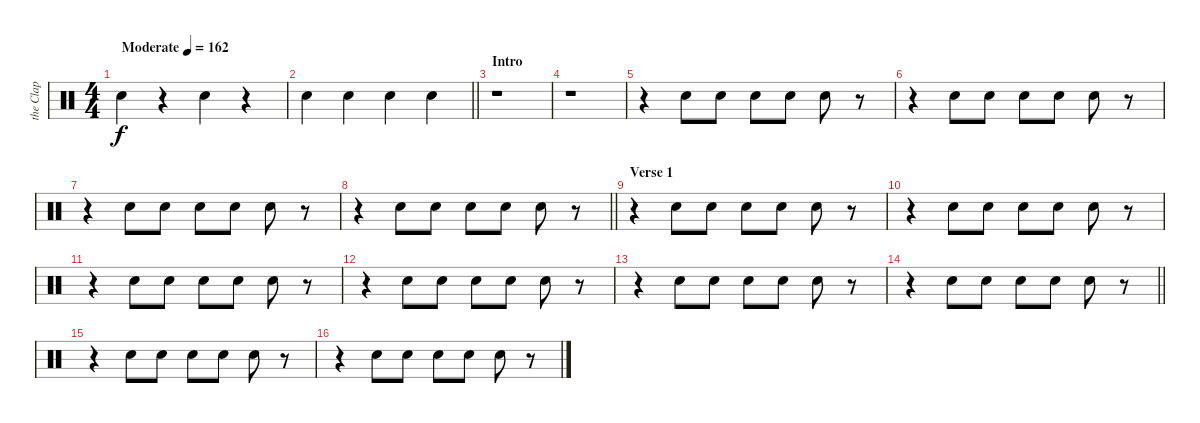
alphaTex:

\track ("the Clap" "the Clap") {instrument percussion}
\staff {score}
\articulation defaults
\ts (4 4)
\tempo (162 "Moderate")
\clef neutral
\ks c "Hand Clap (hit)".4{dy f}
r.4 "Hand Clap (hit)".4 r.4 |
\barLineRight lightlight "Hand Clap (hit)".4 "Hand Clap (hit)".4 "Hand Clap (hit)".4 "Hand Clap (hit)".4
|
\section ("" "Intro")
r.1 |
r.1 |
r.4 "Hand Clap (hit)".8 "Hand Clap (hit)".8 "Hand Clap (hit)".8 "Hand Clap (hit)".8 "Hand Clap (hit)".8 r.8 |
r.4 "Hand Clap (hit)".8 "Hand Clap (hit)".8 "Hand Clap (hit)".8 "Hand Clap (hit)".8 "Hand Clap (hit)".8 r.8 |
r.4 "Hand Clap (hit)".8 "Hand Clap (hit)".8 "Hand Clap (hit)".8 "Hand Clap (hit)".8 "Hand Clap (hit)".8 r.8 |
\barLineRight lightlight
r.4 "Hand Clap (hit)".8 "Hand Clap (hit)".8 "Hand Clap (hit)".8 "Hand Clap (hit)".8 "Hand Clap (hit)".8 r.8 |
\section ("" "Verse 1")
r.4 "Hand Clap (hit)".8 "Hand Clap (hit)".8 "Hand Clap (hit)".8 "Hand Clap (hit)".8 "Hand Clap (hit)".8 r.8 |
r.4 "Hand Clap (hit)".8 "Hand Clap (hit)".8 "Hand Clap (hit)".8 "Hand Clap (hit)".8 "Hand Clap (hit)".8 r.8 |
r.4 "Hand Clap (hit)".8 "Hand Clap (hit)".8 "Hand Clap (hit)".8 "Hand Clap (hit)".8 "Hand Clap (hit)".8 r.8 |
r.4 "Hand Clap (hit)".8 "Hand Clap (hit)".8 "Hand Clap (hit)".8 "Hand Clap (hit)".8 "Hand Clap (hit)".8 r.8 |
r.4 "Hand Clap (hit)".8 "Hand Clap (hit)".8 "Hand Clap (hit)".8 "Hand Clap (hit)".8 "Hand Clap (hit)".8 r.8 |
\barLineRight lightlight
r.4 "Hand Clap (hit)".8 "Hand Clap (hit)".8 "Hand Clap (hit)".8 "Hand Clap (hit)".8 "Hand Clap (hit)".8 r.8 |
r.4 "Hand Clap (hit)".8 "Hand Clap (hit)".8 "Hand Clap (hit)".8 "Hand Clap (hit)".8 "Hand Clap (hit)".8 r.8 |
r.4 "Hand Clap (hit)".8 "Hand Clap (hit)".8 "Hand Clap (hit)".8 "Hand Clap (hit)".8 "Hand Clap (hit)".8 r.8
